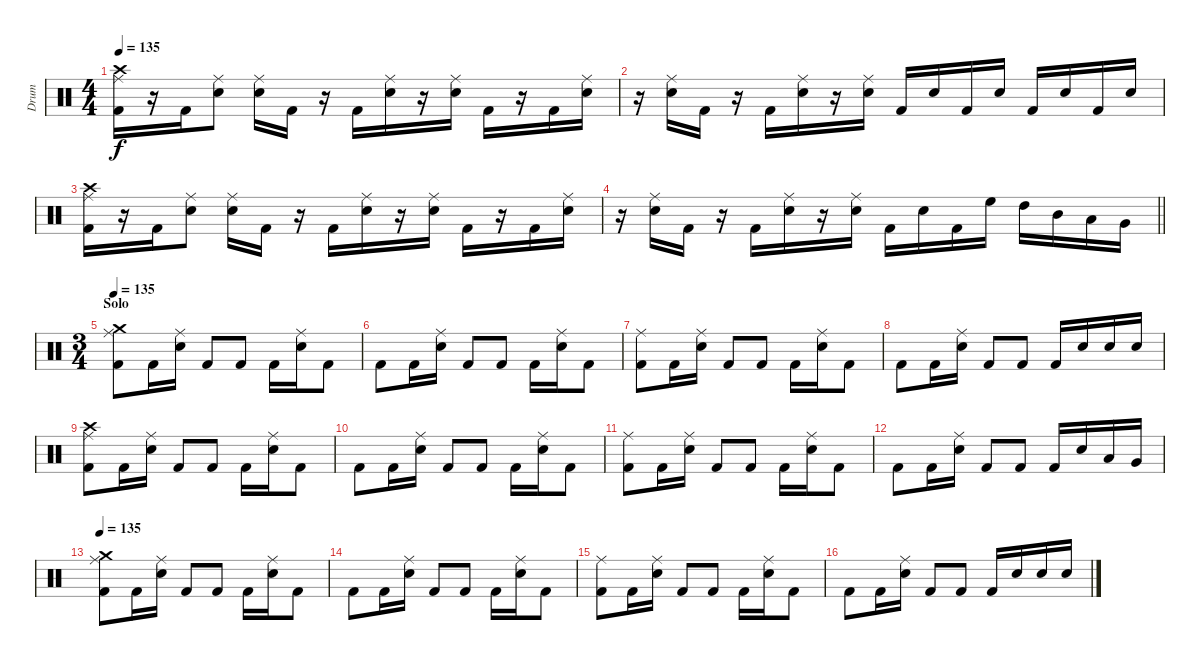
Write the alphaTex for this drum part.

\track ("Drum" "Drum") {instrument percussion}
\staff {score}
\articulation defaults
\ts (4 4)
\tempo 135
\clef neutral
\ks c
("Crash high (hit)" "Ride (middle)" "Kick (hit) 2").16{dy f} r.16 "Kick (hit) 2".16 ("Ride (middle)" "Electric Snare (hit)").8 ("Ride (middle)" "Electric Snare (hit)").16 "Kick (hit) 2".16 r.16 "Kick (hit) 2".16 ("Ride (middle)" "Electric Snare (hit)").16 r.16 ("Ride (middle)" "Electric Snare (hit)").16 "Kick (hit) 2".16 r.16 "Kick (hit) 2".16 ("Ride (middle)" "Electric Snare (hit)").16 |
r.16 ("Ride (middle)" "Electric Snare (hit)").16 "Kick (hit) 2".16 r.16 "Kick (hit) 2".16 ("Ride (middle)" "Electric Snare (hit)").16 r.16 ("Ride (middle)" "Electric Snare (hit)").16 "Kick (hit) 2".16 "Electric Snare (hit)".16 "Kick (hit) 2".16 "Electric Snare (hit)".16 "Kick (hit) 2".16 "Electric Snare (hit)".16 "Kick (hit) 2".16 "Electric Snare (hit)".16 |
("Crash high (hit)" "Ride (middle)" "Kick (hit) 2").16 r.16 "Kick (hit) 2".16 ("Ride (middle)" "Electric Snare (hit)").8 ("Ride (middle)" "Electric Snare (hit)").16 "Kick (hit) 2".16 r.16 "Kick (hit) 2".16 ("Ride (middle)" "Electric Snare (hit)").16 r.16 ("Ride (middle)" "Electric Snare (hit)").16 "Kick (hit) 2".16 r.16 "Kick (hit) 2".16 ("Ride (middle)" "Electric Snare (hit)").16 |
\barLineRight lightlight
r.16 ("Ride (middle)" "Electric Snare (hit)").16 "Kick (hit) 2".16 r.16 "Kick (hit) 2".16 ("Ride (middle)" "Electric Snare (hit)").16 r.16 ("Ride (middle)" "Electric Snare (hit)").16 "Kick (hit) 2".16 "Electric Snare (hit)".16 "Kick (hit) 2".16 "High Floor Tom (hit)".16 "High Tom (hit)".16 "Mid Tom (hit)".16 "Low Tom (hit)".16 "Very Low Tom (hit)".16 |
\ts (3 4)
\section ("" "Solo")
\tempo 135
("Crash medium (hit)" "Ride (middle)" "Kick (hit) 2").8 "Kick (hit) 2".16 ("Ride (middle)" "Electric Snare (hit)").16 "Kick (hit) 2".8 "Kick (hit) 2".8 "Kick (hit) 2".16 ("Ride (middle)" "Electric Snare (hit)").16 "Kick (hit) 2".8 |
"Kick (hit) 2".8 "Kick (hit) 2".16 ("Ride (middle)" "Electric Snare (hit)").16 "Kick (hit) 2".8 "Kick (hit) 2".8 "Kick (hit) 2".16 ("Ride (middle)" "Electric Snare (hit)").16 "Kick (hit) 2".8 |
("Ride (middle)" "Kick (hit) 2").8 "Kick (hit) 2".16 ("Ride (middle)" "Electric Snare (hit)").16 "Kick (hit) 2".8 "Kick (hit) 2".8 "Kick (hit) 2".16 ("Ride (middle)" "Electric Snare (hit)").16 "Kick (hit) 2".8 |
"Kick (hit) 2".8 "Kick (hit) 2".16 ("Ride (middle)" "Electric Snare (hit)").16 "Kick (hit) 2".8 "Kick (hit) 2".8 "Kick (hit) 2".16 "Electric Snare (hit)".16 "Electric Snare (hit)".16 "Electric Snare (hit)".16 |
("Crash high (hit)" "Ride (middle)" "Kick (hit) 2").8 "Kick (hit) 2".16 ("Ride (middle)" "Electric Snare (hit)").16 "Kick (hit) 2".8 "Kick (hit) 2".8 "Kick (hit) 2".16 ("Ride (middle)" "Electric Snare (hit)").16 "Kick (hit) 2".8 |
"Kick (hit) 2".8 "Kick (hit) 2".16 ("Ride (middle)" "Electric Snare (hit)").16 "Kick (hit) 2".8 "Kick (hit) 2".8 "Kick (hit) 2".16 ("Ride (middle)" "Electric Snare (hit)").16 "Kick (hit) 2".8 |
("Ride (middle)" "Kick (hit) 2").8 "Kick (hit) 2".16 ("Ride (middle)" "Electric Snare (hit)").16 "Kick (hit) 2".8 "Kick (hit) 2".8 "Kick (hit) 2".16 ("Ride (middle)" "Electric Snare (hit)").16 "Kick (hit) 2".8 |
"Kick (hit) 2".8 "Kick (hit) 2".16 ("Ride (middle)" "Electric Snare (hit)").16 "Kick (hit) 2".8 "Kick (hit) 2".8 "Kick (hit) 2".16 "Electric Snare (hit)".16 "Low Tom (hit)".16 "Very Low Tom (hit)".16 |
\tempo 135
("Crash medium (hit)" "Ride (middle)" "Kick (hit) 2").8 "Kick (hit) 2".16 ("Ride (middle)" "Electric Snare (hit)").16 "Kick (hit) 2".8 "Kick (hit) 2".8 "Kick (hit) 2".16 ("Ride (middle)" "Electric Snare (hit)").16 "Kick (hit) 2".8 |
"Kick (hit) 2".8 "Kick (hit) 2".16 ("Ride (middle)" "Electric Snare (hit)").16 "Kick (hit) 2".8 "Kick (hit) 2".8 "Kick (hit) 2".16 ("Ride (middle)" "Electric Snare (hit)").16 "Kick (hit) 2".8 |
("Ride (middle)" "Kick (hit) 2").8 "Kick (hit) 2".16 ("Ride (middle)" "Electric Snare (hit)").16 "Kick (hit) 2".8 "Kick (hit) 2".8 "Kick (hit) 2".16 ("Ride (middle)" "Electric Snare (hit)").16 "Kick (hit) 2".8 |
"Kick (hit) 2".8 "Kick (hit) 2".16 ("Ride (middle)" "Electric Snare (hit)").16 "Kick (hit) 2".8 "Kick (hit) 2".8 "Kick (hit) 2".16 "Electric Snare (hit)".16 "Electric Snare (hit)".16 "Electric Snare (hit)".16
